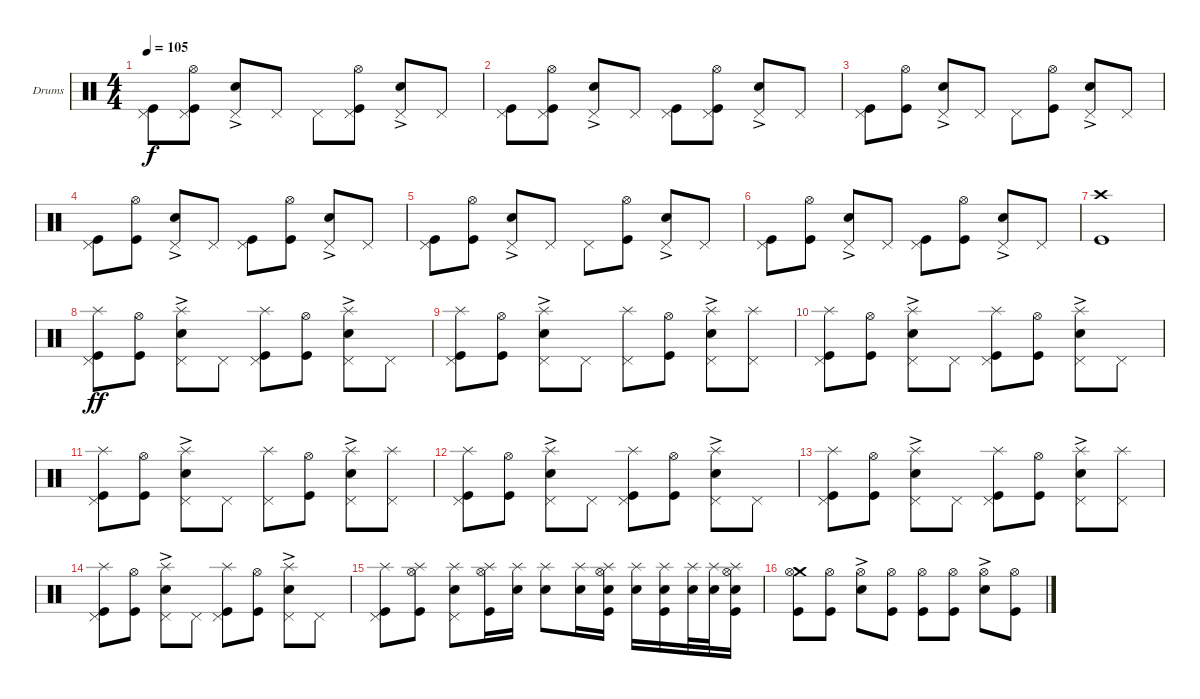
\bracketExtendMode groupsimilarinstruments
\firstSystemTrackNameOrientation horizontal
\otherSystemsTrackNameOrientation horizontal
\track ("Drumkit" "Drums") {instrument percussion}
\staff {score}
\articulation defaults
\ts (4 4)
\tempo 105
\clef neutral
\ks c
("Kick (hit)" "Pedal Hi-Hat (hit)").8{dy f} ("Kick (hit)" "Hi-Hat (open)" "Pedal Hi-Hat (hit)").8 ("Pedal Hi-Hat (hit)" "Snare (hit) 2"{ac}).8 "Pedal Hi-Hat (hit)".8 "Pedal Hi-Hat (hit)".8 ("Kick (hit)" "Hi-Hat (open)" "Pedal Hi-Hat (hit)").8 ("Pedal Hi-Hat (hit)" "Snare (hit) 2"{ac}).8 "Pedal Hi-Hat (hit)".8 |
("Kick (hit)" "Pedal Hi-Hat (hit)").8 ("Kick (hit)" "Hi-Hat (open)" "Pedal Hi-Hat (hit)").8 ("Pedal Hi-Hat (hit)" "Snare (hit) 2"{ac}).8 "Pedal Hi-Hat (hit)".8 ("Kick (hit)" "Pedal Hi-Hat (hit)").8 ("Kick (hit)" "Hi-Hat (open)" "Pedal Hi-Hat (hit)").8 ("Pedal Hi-Hat (hit)" "Snare (hit) 2"{ac}).8 "Pedal Hi-Hat (hit)".8 |
("Kick (hit)" "Pedal Hi-Hat (hit)").8 ("Kick (hit)" "Hi-Hat (open)").8 ("Pedal Hi-Hat (hit)" "Snare (hit) 2"{ac}).8 "Pedal Hi-Hat (hit)".8 "Pedal Hi-Hat (hit)".8 ("Kick (hit)" "Hi-Hat (open)").8 ("Pedal Hi-Hat (hit)" "Snare (hit) 2"{ac}).8 "Pedal Hi-Hat (hit)".8 |
("Kick (hit)" "Pedal Hi-Hat (hit)").8 ("Kick (hit)" "Hi-Hat (open)").8 ("Pedal Hi-Hat (hit)" "Snare (hit) 2"{ac}).8 "Pedal Hi-Hat (hit)".8 ("Kick (hit)" "Pedal Hi-Hat (hit)").8 ("Kick (hit)" "Hi-Hat (open)").8 ("Pedal Hi-Hat (hit)" "Snare (hit) 2"{ac}).8 "Pedal Hi-Hat (hit)".8 |
("Kick (hit)" "Pedal Hi-Hat (hit)").8 ("Kick (hit)" "Hi-Hat (open)").8 ("Pedal Hi-Hat (hit)" "Snare (hit) 2"{ac}).8 "Pedal Hi-Hat (hit)".8 "Pedal Hi-Hat (hit)".8 ("Kick (hit)" "Hi-Hat (open)").8 ("Pedal Hi-Hat (hit)" "Snare (hit) 2"{ac}).8 "Pedal Hi-Hat (hit)".8 |
("Kick (hit)" "Pedal Hi-Hat (hit)").8 ("Kick (hit)" "Hi-Hat (open)").8 ("Pedal Hi-Hat (hit)" "Snare (hit) 2"{ac}).8 "Pedal Hi-Hat (hit)".8 ("Kick (hit)" "Pedal Hi-Hat (hit)").8 ("Kick (hit)" "Hi-Hat (open)").8 ("Pedal Hi-Hat (hit)" "Snare (hit) 2"{ac}).8 "Pedal Hi-Hat (hit)".8 |
("Kick (hit)" "Crash high (hit)").1 |
("Kick (hit)" "Pedal Hi-Hat (hit)" "Splash (hit)").8{dy ff} ("Kick (hit)" "Hi-Hat (open)").8 ("Pedal Hi-Hat (hit)" "Snare (hit) 2"{ac} "Splash (hit)").8 "Pedal Hi-Hat (hit)".8 ("Kick (hit)" "Pedal Hi-Hat (hit)" "Splash (hit)").8 ("Kick (hit)" "Hi-Hat (open)").8 ("Pedal Hi-Hat (hit)" "Snare (hit) 2"{ac} "Splash (hit)").8 "Pedal Hi-Hat (hit)".8 |
("Kick (hit)" "Pedal Hi-Hat (hit)" "Splash (hit)").8 ("Kick (hit)" "Hi-Hat (open)").8 ("Pedal Hi-Hat (hit)" "Snare (hit) 2"{ac} "Splash (hit)").8 "Pedal Hi-Hat (hit)".8 ("Pedal Hi-Hat (hit)" "Splash (hit)").8 ("Kick (hit)" "Hi-Hat (open)").8 ("Pedal Hi-Hat (hit)" "Snare (hit) 2"{ac} "Splash (hit)").8 ("Pedal Hi-Hat (hit)" "Splash (hit)").8 |
("Kick (hit)" "Pedal Hi-Hat (hit)" "Splash (hit)").8 ("Kick (hit)" "Hi-Hat (open)").8 ("Pedal Hi-Hat (hit)" "Snare (hit) 2"{ac} "Splash (hit)").8 "Pedal Hi-Hat (hit)".8 ("Kick (hit)" "Pedal Hi-Hat (hit)" "Splash (hit)").8 ("Kick (hit)" "Hi-Hat (open)").8 ("Pedal Hi-Hat (hit)" "Snare (hit) 2"{ac} "Splash (hit)").8 "Pedal Hi-Hat (hit)".8 |
("Kick (hit)" "Pedal Hi-Hat (hit)" "Splash (hit)").8 ("Kick (hit)" "Hi-Hat (open)").8 ("Pedal Hi-Hat (hit)" "Snare (hit) 2"{ac} "Splash (hit)").8 "Pedal Hi-Hat (hit)".8 ("Pedal Hi-Hat (hit)" "Splash (hit)").8 ("Kick (hit)" "Hi-Hat (open)").8 ("Pedal Hi-Hat (hit)" "Snare (hit) 2"{ac} "Splash (hit)").8 ("Pedal Hi-Hat (hit)" "Splash (hit)").8 |
("Kick (hit)" "Pedal Hi-Hat (hit)" "Splash (hit)").8 ("Kick (hit)" "Hi-Hat (open)").8 ("Pedal Hi-Hat (hit)" "Snare (hit) 2"{ac} "Splash (hit)").8 "Pedal Hi-Hat (hit)".8 ("Kick (hit)" "Pedal Hi-Hat (hit)" "Splash (hit)").8 ("Kick (hit)" "Hi-Hat (open)").8 ("Pedal Hi-Hat (hit)" "Snare (hit) 2"{ac} "Splash (hit)").8 "Pedal Hi-Hat (hit)".8 |
("Kick (hit)" "Pedal Hi-Hat (hit)" "Splash (hit)").8 ("Kick (hit)" "Hi-Hat (open)").8 ("Pedal Hi-Hat (hit)" "Snare (hit) 2"{ac} "Splash (hit)").8 "Pedal Hi-Hat (hit)".8 ("Kick (hit)" "Pedal Hi-Hat (hit)" "Splash (hit)").8 ("Kick (hit)" "Hi-Hat (open)").8 ("Pedal Hi-Hat (hit)" "Snare (hit) 2"{ac} "Splash (hit)").8 ("Pedal Hi-Hat (hit)" "Splash (hit)").8 |
("Kick (hit)" "Pedal Hi-Hat (hit)" "Splash (hit)").8 ("Kick (hit)" "Hi-Hat (open)").8 ("Pedal Hi-Hat (hit)" "Snare (hit) 2"{ac} "Splash (hit)").8 "Pedal Hi-Hat (hit)".8 ("Kick (hit)" "Pedal Hi-Hat (hit)" "Splash (hit)").8 ("Kick (hit)" "Hi-Hat (open)").8 ("Pedal Hi-Hat (hit)" "Snare (hit) 2"{ac} "Splash (hit)").8 "Pedal Hi-Hat (hit)".8 |
("Kick (hit)" "Pedal Hi-Hat (hit)" "Splash (hit)").8 ("Kick (hit)" "Hi-Hat (open)" "Splash (hit)").8 ("Pedal Hi-Hat (hit)" "Snare (hit) 2" "Splash (hit)").8 ("Kick (hit)" "Hi-Hat (open)" "Splash (hit)").16 ("Snare (hit) 2" "Splash (hit)").16 ("Snare (hit) 2" "Splash (hit)").8 ("Snare (hit) 2" "Splash (hit)").16 ("Kick (hit)" "Hi-Hat (open)" "Splash (hit)" "Snare (hit) 2").16 ("Snare (hit) 2" "Splash (hit)").16 ("Kick (hit)" "Splash (hit)" "Snare (hit) 2").16 ("Snare (hit) 2" "Splash (hit)").32 ("Snare (hit) 2" "Splash (hit)").32 ("Kick (hit)" "Hi-Hat (open)" "Splash (hit)" "Snare (hit) 2").16 |
("Kick (hit)" "Crash medium (hit)" "Hi-Hat (open)").8 ("Kick (hit)" "Hi-Hat (open)").8 ("Snare (hit) 2"{ac} "Hi-Hat (open)").8 ("Kick (hit)" "Hi-Hat (open)").8 ("Kick (hit)" "Hi-Hat (open)").8 ("Kick (hit)" "Hi-Hat (open)").8 ("Snare (hit) 2"{ac} "Hi-Hat (open)").8 ("Kick (hit)" "Hi-Hat (open)").8
